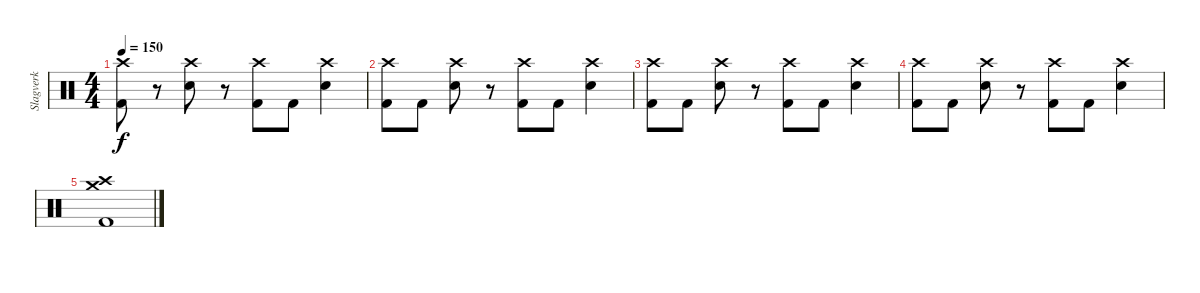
\track ("Slagverk" "Slagverk") {instrument percussion}
\staff {score}
\articulation defaults
\ts (4 4)
\tempo 150
\clef neutral
\ks c
("Crash high (hit)" "Kick (hit) 2").8{dy f} r.8 ("Crash high (hit)" "Electric Snare (hit)").8 r.8 ("Crash high (hit)" "Kick (hit) 2").8 "Kick (hit) 2".8 ("Crash high (hit)" "Electric Snare (hit)").4 |
("Crash high (hit)" "Kick (hit) 2").8 "Kick (hit) 2".8 ("Crash high (hit)" "Electric Snare (hit)").8 r.8 ("Crash high (hit)" "Kick (hit) 2").8 "Kick (hit) 2".8 ("Crash high (hit)" "Electric Snare (hit)").4 |
("Crash high (hit)" "Kick (hit) 2").8 "Kick (hit) 2".8 ("Crash high (hit)" "Electric Snare (hit)").8 r.8 ("Crash high (hit)" "Kick (hit) 2").8 "Kick (hit) 2".8 ("Crash high (hit)" "Electric Snare (hit)").4 |
("Crash high (hit)" "Kick (hit) 2").8 "Kick (hit) 2".8 ("Crash high (hit)" "Electric Snare (hit)").8 r.8 ("Crash high (hit)" "Kick (hit) 2").8 "Kick (hit) 2".8 ("Crash high (hit)" "Electric Snare (hit)").4 |
("Crash medium (hit)" "Crash high (hit)" "Kick (hit) 2").1
